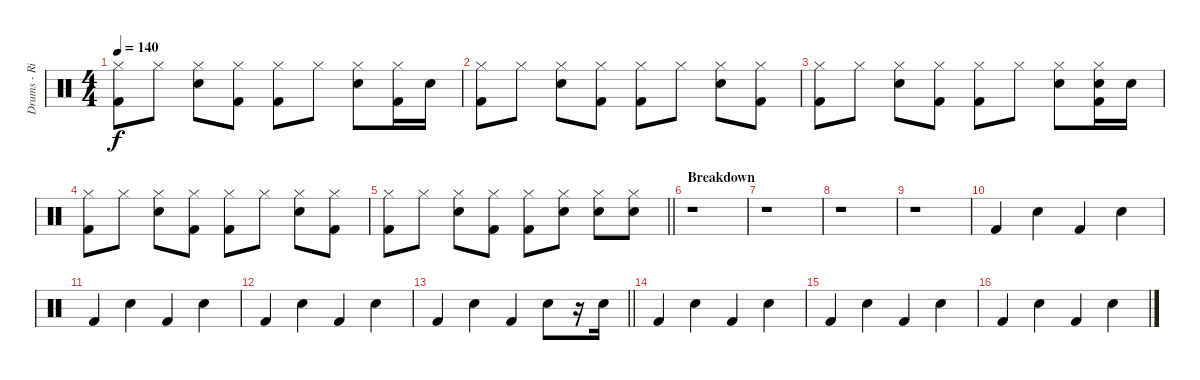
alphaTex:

\track ("Drums - Richard Thomas" "Drums - Ri") {instrument percussion}
\staff {score}
\articulation defaults
\ts (4 4)
\tempo 140
\clef neutral
\ks c
("Kick (hit) 2" "Hi-Hat (closed)").8{dy f} "Hi-Hat (closed)".8 ("Electric Snare (hit)" "Hi-Hat (closed)").8 ("Kick (hit) 2" "Hi-Hat (closed)").8 ("Kick (hit) 2" "Hi-Hat (closed)").8 "Hi-Hat (closed)".8 ("Electric Snare (hit)" "Hi-Hat (closed)").8 ("Kick (hit) 2" "Hi-Hat (closed)").16 "Electric Snare (hit)".16 |
("Kick (hit) 2" "Hi-Hat (closed)").8 "Hi-Hat (closed)".8 ("Electric Snare (hit)" "Hi-Hat (closed)").8 ("Kick (hit) 2" "Hi-Hat (closed)").8 ("Kick (hit) 2" "Hi-Hat (closed)").8 "Hi-Hat (closed)".8 ("Electric Snare (hit)" "Hi-Hat (closed)").8 ("Kick (hit) 2" "Hi-Hat (closed)").8 |
("Kick (hit) 2" "Hi-Hat (closed)").8 "Hi-Hat (closed)".8 ("Electric Snare (hit)" "Hi-Hat (closed)").8 ("Kick (hit) 2" "Hi-Hat (closed)").8 ("Kick (hit) 2" "Hi-Hat (closed)").8 "Hi-Hat (closed)".8 ("Electric Snare (hit)" "Hi-Hat (closed)").8 ("Electric Snare (hit)" "Kick (hit) 2" "Hi-Hat (closed)").16 "Electric Snare (hit)".16 |
("Kick (hit) 2" "Hi-Hat (closed)").8 "Hi-Hat (closed)".8 ("Electric Snare (hit)" "Hi-Hat (closed)").8 ("Kick (hit) 2" "Hi-Hat (closed)").8 ("Kick (hit) 2" "Hi-Hat (closed)").8 "Hi-Hat (closed)".8 ("Electric Snare (hit)" "Hi-Hat (closed)").8 ("Kick (hit) 2" "Hi-Hat (closed)").8 |
\barLineRight lightlight
("Kick (hit) 2" "Hi-Hat (closed)").8 "Hi-Hat (closed)".8 ("Electric Snare (hit)" "Hi-Hat (closed)").8 ("Kick (hit) 2" "Hi-Hat (closed)").8 ("Kick (hit) 2" "Hi-Hat (closed)").8 ("Electric Snare (hit)" "Hi-Hat (closed)").8 ("Electric Snare (hit)" "Hi-Hat (closed)").8 ("Electric Snare (hit)" "Hi-Hat (closed)").8 |
\section ("" "Breakdown")
r.1 |
r.1 |
r.1 |
r.1 |
"Kick (hit) 2".4 "Electric Snare (hit)".4 "Kick (hit) 2".4 "Electric Snare (hit)".4 |
"Kick (hit) 2".4 "Electric Snare (hit)".4 "Kick (hit) 2".4 "Electric Snare (hit)".4 |
"Kick (hit) 2".4 "Electric Snare (hit)".4 "Kick (hit) 2".4 "Electric Snare (hit)".4 |
\barLineRight lightlight "Kick (hit) 2".4 "Electric Snare (hit)".4 "Kick (hit) 2".4 "Electric Snare (hit)".8
r.16 "Electric Snare (hit)".16 |
"Kick (hit) 2".4 "Electric Snare (hit)".4 "Kick (hit) 2".4 "Electric Snare (hit)".4 |
"Kick (hit) 2".4 "Electric Snare (hit)".4 "Kick (hit) 2".4 "Electric Snare (hit)".4 |
"Kick (hit) 2".4 "Electric Snare (hit)".4 "Kick (hit) 2".4 "Electric Snare (hit)".4
